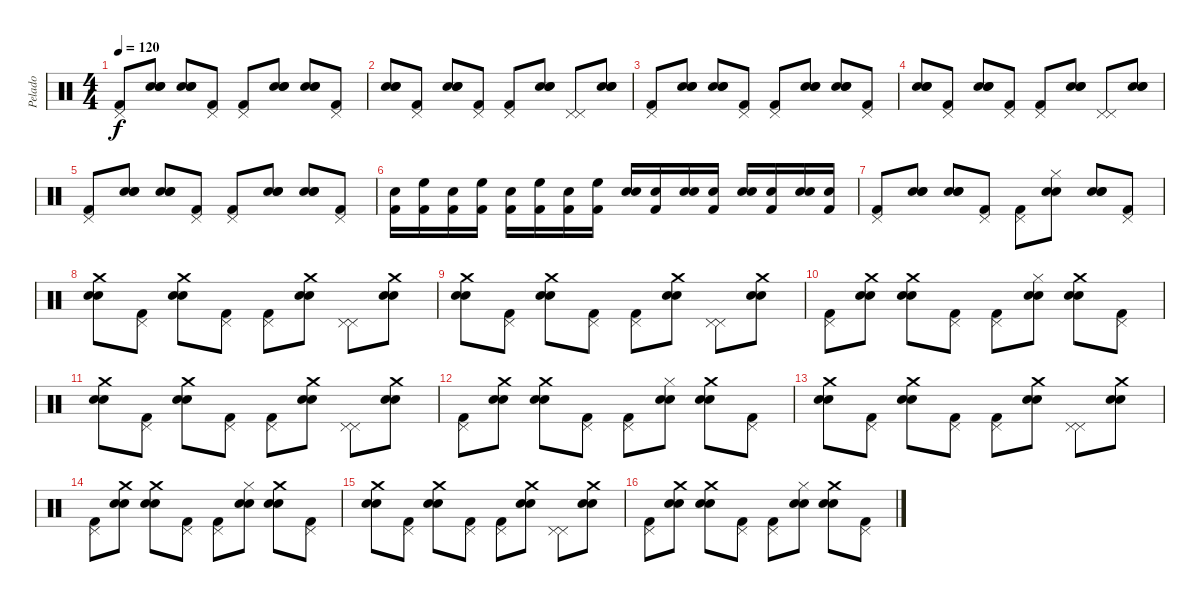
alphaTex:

\track ("Pelado" "Pelado") {instrument percussion}
\staff {score}
\articulation defaults
\ts (4 4)
\tempo 120
\clef neutral
\ks c
("Pedal Hi-Hat (hit)" "Kick (hit) 2").8{dy f} ("Electric Snare (hit)" "Snare (hit) 2" "Snare (hit) 2").8 ("Electric Snare (hit)" "Snare (hit) 2" "Snare (hit) 2").8 ("Pedal Hi-Hat (hit)" "Kick (hit) 2").8 ("Pedal Hi-Hat (hit)" "Kick (hit) 2").8 ("Electric Snare (hit)" "Snare (hit) 2" "Snare (hit) 2").8 ("Electric Snare (hit)" "Snare (hit) 2" "Snare (hit) 2").8 ("Pedal Hi-Hat (hit)" "Kick (hit) 2").8 |
("Electric Snare (hit)" "Snare (hit) 2" "Snare (hit) 2").8 ("Pedal Hi-Hat (hit)" "Kick (hit) 2").8 ("Electric Snare (hit)" "Snare (hit) 2" "Snare (hit) 2").8 ("Pedal Hi-Hat (hit)" "Kick (hit) 2").8 ("Pedal Hi-Hat (hit)" "Kick (hit) 2").8 ("Electric Snare (hit)" "Snare (hit) 2" "Snare (hit) 2").8 ("Pedal Hi-Hat (hit)" "Pedal Hi-Hat (hit)").8 ("Electric Snare (hit)" "Snare (hit) 2" "Snare (hit) 2").8 |
("Pedal Hi-Hat (hit)" "Kick (hit) 2").8 ("Electric Snare (hit)" "Snare (hit) 2" "Snare (hit) 2").8 ("Electric Snare (hit)" "Snare (hit) 2" "Snare (hit) 2").8 ("Pedal Hi-Hat (hit)" "Kick (hit) 2").8 ("Pedal Hi-Hat (hit)" "Kick (hit) 2").8 ("Electric Snare (hit)" "Snare (hit) 2" "Snare (hit) 2").8 ("Electric Snare (hit)" "Snare (hit) 2" "Snare (hit) 2").8 ("Pedal Hi-Hat (hit)" "Kick (hit) 2").8 |
("Electric Snare (hit)" "Snare (hit) 2" "Snare (hit) 2").8 ("Pedal Hi-Hat (hit)" "Kick (hit) 2").8 ("Electric Snare (hit)" "Snare (hit) 2" "Snare (hit) 2").8 ("Pedal Hi-Hat (hit)" "Kick (hit) 2").8 ("Pedal Hi-Hat (hit)" "Kick (hit) 2").8 ("Electric Snare (hit)" "Snare (hit) 2" "Snare (hit) 2").8 ("Pedal Hi-Hat (hit)" "Pedal Hi-Hat (hit)").8 ("Electric Snare (hit)" "Snare (hit) 2" "Snare (hit) 2").8 |
("Pedal Hi-Hat (hit)" "Kick (hit) 2").8 ("Electric Snare (hit)" "Snare (hit) 2" "Snare (hit) 2").8 ("Electric Snare (hit)" "Snare (hit) 2" "Snare (hit) 2").8 ("Pedal Hi-Hat (hit)" "Kick (hit) 2").8 ("Pedal Hi-Hat (hit)" "Kick (hit) 2").8 ("Electric Snare (hit)" "Snare (hit) 2" "Snare (hit) 2").8 ("Electric Snare (hit)" "Snare (hit) 2" "Snare (hit) 2").8 ("Pedal Hi-Hat (hit)" "Kick (hit) 2").8 |
("Snare (hit) 2" "Kick (hit) 2").16 ("High Floor Tom (hit)" "Kick (hit) 2").16 ("Snare (hit) 2" "Kick (hit) 2").16 ("High Floor Tom (hit)" "Kick (hit) 2").16 ("Snare (hit) 2" "Kick (hit) 2").16 ("High Floor Tom (hit)" "Kick (hit) 2").16 ("Snare (hit) 2" "Kick (hit) 2").16 ("High Floor Tom (hit)" "Kick (hit) 2").16 ("Electric Snare (hit)" "Electric Snare (hit)").16 ("Electric Snare (hit)" "Kick (hit) 2").16 ("Electric Snare (hit)" "Electric Snare (hit)").16 ("Electric Snare (hit)" "Kick (hit) 2").16 ("Electric Snare (hit)" "Electric Snare (hit)").16 ("Electric Snare (hit)" "Kick (hit) 2").16 ("Electric Snare (hit)" "Electric Snare (hit)").16 ("Electric Snare (hit)" "Kick (hit) 2").16 |
("Pedal Hi-Hat (hit)" "Kick (hit) 2").8 ("Electric Snare (hit)" "Snare (hit) 2" "Snare (hit) 2").8 ("Electric Snare (hit)" "Snare (hit) 2" "Snare (hit) 2").8 ("Pedal Hi-Hat (hit)" "Kick (hit) 2").8 ("Pedal Hi-Hat (hit)" "Kick (hit) 2").8 ("Hi-Hat (closed)" "Snare (hit) 2" "Snare (hit) 2").8 ("Electric Snare (hit)" "Snare (hit) 2" "Snare (hit) 2").8 ("Pedal Hi-Hat (hit)" "Kick (hit) 2").8 |
("Crash medium (hit)" "Snare (hit) 2" "Snare (hit) 2").8 ("Pedal Hi-Hat (hit)" "Kick (hit) 2").8 ("Crash medium (hit)" "Snare (hit) 2" "Snare (hit) 2").8 ("Pedal Hi-Hat (hit)" "Kick (hit) 2").8 ("Pedal Hi-Hat (hit)" "Kick (hit) 2").8 ("Crash medium (hit)" "Snare (hit) 2" "Snare (hit) 2").8 ("Pedal Hi-Hat (hit)" "Pedal Hi-Hat (hit)").8 ("Crash medium (hit)" "Snare (hit) 2" "Snare (hit) 2").8 |
("Crash medium (hit)" "Snare (hit) 2" "Snare (hit) 2").8 ("Pedal Hi-Hat (hit)" "Kick (hit) 2").8 ("Crash medium (hit)" "Snare (hit) 2" "Snare (hit) 2").8 ("Pedal Hi-Hat (hit)" "Kick (hit) 2").8 ("Pedal Hi-Hat (hit)" "Kick (hit) 2").8 ("Crash medium (hit)" "Snare (hit) 2" "Snare (hit) 2").8 ("Pedal Hi-Hat (hit)" "Pedal Hi-Hat (hit)").8 ("Crash medium (hit)" "Snare (hit) 2" "Snare (hit) 2").8 |
("Pedal Hi-Hat (hit)" "Kick (hit) 2").8 ("Crash medium (hit)" "Snare (hit) 2" "Snare (hit) 2").8 ("Crash medium (hit)" "Snare (hit) 2" "Snare (hit) 2").8 ("Pedal Hi-Hat (hit)" "Kick (hit) 2").8 ("Pedal Hi-Hat (hit)" "Kick (hit) 2").8 ("Hi-Hat (closed)" "Snare (hit) 2" "Snare (hit) 2").8 ("Crash medium (hit)" "Snare (hit) 2" "Snare (hit) 2").8 ("Pedal Hi-Hat (hit)" "Kick (hit) 2").8 |
("Crash medium (hit)" "Snare (hit) 2" "Snare (hit) 2").8 ("Pedal Hi-Hat (hit)" "Kick (hit) 2").8 ("Crash medium (hit)" "Snare (hit) 2" "Snare (hit) 2").8 ("Pedal Hi-Hat (hit)" "Kick (hit) 2").8 ("Pedal Hi-Hat (hit)" "Kick (hit) 2").8 ("Crash medium (hit)" "Snare (hit) 2" "Snare (hit) 2").8 ("Pedal Hi-Hat (hit)" "Pedal Hi-Hat (hit)").8 ("Crash medium (hit)" "Snare (hit) 2" "Snare (hit) 2").8 |
("Pedal Hi-Hat (hit)" "Kick (hit) 2").8 ("Crash medium (hit)" "Snare (hit) 2" "Snare (hit) 2").8 ("Crash medium (hit)" "Snare (hit) 2" "Snare (hit) 2").8 ("Pedal Hi-Hat (hit)" "Kick (hit) 2").8 ("Pedal Hi-Hat (hit)" "Kick (hit) 2").8 ("Hi-Hat (closed)" "Snare (hit) 2" "Snare (hit) 2").8 ("Crash medium (hit)" "Snare (hit) 2" "Snare (hit) 2").8 ("Pedal Hi-Hat (hit)" "Kick (hit) 2").8 |
("Crash medium (hit)" "Snare (hit) 2" "Snare (hit) 2").8 ("Pedal Hi-Hat (hit)" "Kick (hit) 2").8 ("Crash medium (hit)" "Snare (hit) 2" "Snare (hit) 2").8 ("Pedal Hi-Hat (hit)" "Kick (hit) 2").8 ("Pedal Hi-Hat (hit)" "Kick (hit) 2").8 ("Crash medium (hit)" "Snare (hit) 2" "Snare (hit) 2").8 ("Pedal Hi-Hat (hit)" "Pedal Hi-Hat (hit)").8 ("Crash medium (hit)" "Snare (hit) 2" "Snare (hit) 2").8 |
("Pedal Hi-Hat (hit)" "Kick (hit) 2").8 ("Crash medium (hit)" "Snare (hit) 2" "Snare (hit) 2").8 ("Crash medium (hit)" "Snare (hit) 2" "Snare (hit) 2").8 ("Pedal Hi-Hat (hit)" "Kick (hit) 2").8 ("Pedal Hi-Hat (hit)" "Kick (hit) 2").8 ("Hi-Hat (closed)" "Snare (hit) 2" "Snare (hit) 2").8 ("Crash medium (hit)" "Snare (hit) 2" "Snare (hit) 2").8 ("Pedal Hi-Hat (hit)" "Kick (hit) 2").8 |
("Crash medium (hit)" "Snare (hit) 2" "Snare (hit) 2").8 ("Pedal Hi-Hat (hit)" "Kick (hit) 2").8 ("Crash medium (hit)" "Snare (hit) 2" "Snare (hit) 2").8 ("Pedal Hi-Hat (hit)" "Kick (hit) 2").8 ("Pedal Hi-Hat (hit)" "Kick (hit) 2").8 ("Crash medium (hit)" "Snare (hit) 2" "Snare (hit) 2").8 ("Pedal Hi-Hat (hit)" "Pedal Hi-Hat (hit)").8 ("Crash medium (hit)" "Snare (hit) 2" "Snare (hit) 2").8 |
("Pedal Hi-Hat (hit)" "Kick (hit) 2").8 ("Crash medium (hit)" "Snare (hit) 2" "Snare (hit) 2").8 ("Crash medium (hit)" "Snare (hit) 2" "Snare (hit) 2").8 ("Pedal Hi-Hat (hit)" "Kick (hit) 2").8 ("Pedal Hi-Hat (hit)" "Kick (hit) 2").8 ("Hi-Hat (closed)" "Snare (hit) 2" "Snare (hit) 2").8 ("Crash medium (hit)" "Snare (hit) 2" "Snare (hit) 2").8 ("Pedal Hi-Hat (hit)" "Kick (hit) 2").8
